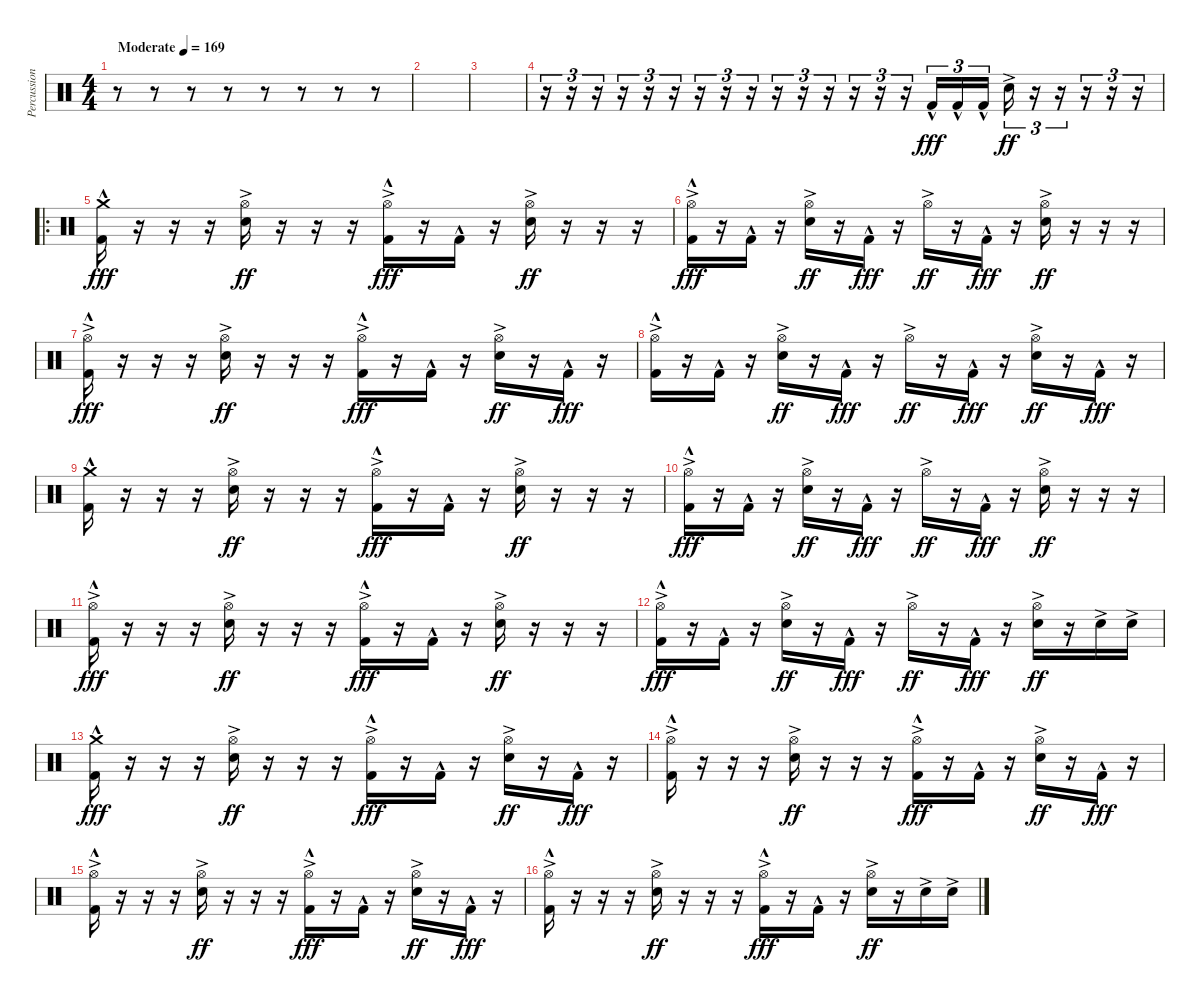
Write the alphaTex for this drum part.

\track ("Percussion" "Percussion") {instrument percussion}
\staff {score}
\articulation defaults
\ts (4 4)
\tempo (169 "Moderate")
\clef neutral
\ks c
r.8{dy fff} r.8 r.8 r.8 r.8 r.8 r.8 r.8 |
|
|
r.16{tu (3 2)} r.16{tu (3 2)} r.16{tu (3 2)} r.16{tu (3 2)} r.16{tu (3 2)} r.16{tu (3 2)} r.16{tu (3 2)} r.16{tu (3 2)} r.16{tu (3 2)} r.16{tu (3 2)} r.16{tu (3 2)} r.16{tu (3 2)} r.16{tu (3 2)} r.16{tu (3 2)} r.16{tu (3 2)} "Kick (hit) 2"{hac}.16{tu (3 2)} "Kick (hit) 2"{hac}.16{tu (3 2)} "Kick (hit) 2"{hac}.16{tu (3 2)} "Snare (hit) 2"{ac}.16{tu (3 2) dy ff} r.16{tu (3 2)} r.16{tu (3 2)} r.16{tu (3 2)} r.16{tu (3 2)} r.16{tu (3 2)} |
\ro
("Crash medium (hit)"{hac} "Kick (hit) 2"{hac}).16{dy fff} r.16 r.16 r.16 ("Hi-Hat (open)"{ac} "Snare (hit) 2"{ac}).16{dy ff} r.16 r.16 r.16 ("Hi-Hat (open)"{ac} "Kick (hit) 2"{hac}).16{dy fff} r.16 "Kick (hit) 2"{hac}.16 r.16 ("Hi-Hat (open)"{ac} "Snare (hit) 2"{ac}).16{dy ff} r.16 r.16 r.16 |
("Hi-Hat (open)"{ac} "Kick (hit) 2"{hac}).16{dy fff} r.16 "Kick (hit) 2"{hac}.16 r.16 ("Hi-Hat (open)"{ac} "Snare (hit) 2"{ac}).16{dy ff} r.16 "Kick (hit) 2"{hac}.16{dy fff} r.16 "Hi-Hat (open)"{ac}.16{dy ff} r.16 "Kick (hit) 2"{hac}.16{dy fff} r.16 ("Hi-Hat (open)"{ac} "Snare (hit) 2"{ac}).16{dy ff} r.16 r.16 r.16 |
("Hi-Hat (open)"{ac} "Kick (hit) 2"{hac}).16{dy fff} r.16 r.16 r.16 ("Hi-Hat (open)"{ac} "Snare (hit) 2"{ac}).16{dy ff} r.16 r.16 r.16 ("Hi-Hat (open)"{ac} "Kick (hit) 2"{hac}).16{dy fff} r.16 "Kick (hit) 2"{hac}.16 r.16 ("Hi-Hat (open)"{ac} "Snare (hit) 2"{ac}).16{dy ff} r.16 "Kick (hit) 2"{hac}.16{dy fff} r.16 |
("Hi-Hat (open)"{ac} "Kick (hit) 2"{hac}).16 r.16 "Kick (hit) 2"{hac}.16 r.16 ("Hi-Hat (open)"{ac} "Snare (hit) 2"{ac}).16{dy ff} r.16 "Kick (hit) 2"{hac}.16{dy fff} r.16 "Hi-Hat (open)"{ac}.16{dy ff} r.16 "Kick (hit) 2"{hac}.16{dy fff} r.16 ("Hi-Hat (open)"{ac} "Snare (hit) 2"{ac}).16{dy ff} r.16 "Kick (hit) 2"{hac}.16{dy fff} r.16 |
("Crash medium (hit)"{hac} "Kick (hit) 2"{hac}).16 r.16 r.16 r.16 ("Hi-Hat (open)"{ac} "Snare (hit) 2"{ac}).16{dy ff} r.16 r.16 r.16 ("Hi-Hat (open)"{ac} "Kick (hit) 2"{hac}).16{dy fff} r.16 "Kick (hit) 2"{hac}.16 r.16 ("Hi-Hat (open)"{ac} "Snare (hit) 2"{ac}).16{dy ff} r.16 r.16 r.16 |
("Hi-Hat (open)"{ac} "Kick (hit) 2"{hac}).16{dy fff} r.16 "Kick (hit) 2"{hac}.16 r.16 ("Hi-Hat (open)"{ac} "Snare (hit) 2"{ac}).16{dy ff} r.16 "Kick (hit) 2"{hac}.16{dy fff} r.16 "Hi-Hat (open)"{ac}.16{dy ff} r.16 "Kick (hit) 2"{hac}.16{dy fff} r.16 ("Hi-Hat (open)"{ac} "Snare (hit) 2"{ac}).16{dy ff} r.16 r.16 r.16 |
("Hi-Hat (open)"{ac} "Kick (hit) 2"{hac}).16{dy fff} r.16 r.16 r.16 ("Hi-Hat (open)"{ac} "Snare (hit) 2"{ac}).16{dy ff} r.16 r.16 r.16 ("Hi-Hat (open)"{ac} "Kick (hit) 2"{hac}).16{dy fff} r.16 "Kick (hit) 2"{hac}.16 r.16 ("Hi-Hat (open)"{ac} "Snare (hit) 2"{ac}).16{dy ff} r.16 r.16 r.16 |
("Hi-Hat (open)"{ac} "Kick (hit) 2"{hac}).16{dy fff} r.16 "Kick (hit) 2"{hac}.16 r.16 ("Hi-Hat (open)"{ac} "Snare (hit) 2"{ac}).16{dy ff} r.16 "Kick (hit) 2"{hac}.16{dy fff} r.16 "Hi-Hat (open)"{ac}.16{dy ff} r.16 "Kick (hit) 2"{hac}.16{dy fff} r.16 ("Hi-Hat (open)"{ac} "Snare (hit) 2"{ac}).16{dy ff} r.16 "Snare (hit) 2"{ac}.16 "Snare (hit) 2"{ac}.16 |
("Crash medium (hit)"{hac} "Kick (hit) 2"{hac}).16{dy fff} r.16 r.16 r.16 ("Hi-Hat (open)"{ac} "Snare (hit) 2"{ac}).16{dy ff} r.16 r.16 r.16 ("Hi-Hat (open)"{ac} "Kick (hit) 2"{hac}).16{dy fff} r.16 "Kick (hit) 2"{hac}.16 r.16 ("Hi-Hat (open)"{ac} "Snare (hit) 2"{ac}).16{dy ff} r.16 "Kick (hit) 2"{hac}.16{dy fff} r.16 |
("Hi-Hat (open)"{ac} "Kick (hit) 2"{hac}).16 r.16 r.16 r.16 ("Hi-Hat (open)"{ac} "Snare (hit) 2"{ac}).16{dy ff} r.16 r.16 r.16 ("Hi-Hat (open)"{ac} "Kick (hit) 2"{hac}).16{dy fff} r.16 "Kick (hit) 2"{hac}.16 r.16 ("Hi-Hat (open)"{ac} "Snare (hit) 2"{ac}).16{dy ff} r.16 "Kick (hit) 2"{hac}.16{dy fff} r.16 |
("Hi-Hat (open)"{ac} "Kick (hit) 2"{hac}).16 r.16 r.16 r.16 ("Hi-Hat (open)"{ac} "Snare (hit) 2"{ac}).16{dy ff} r.16 r.16 r.16 ("Hi-Hat (open)"{ac} "Kick (hit) 2"{hac}).16{dy fff} r.16 "Kick (hit) 2"{hac}.16 r.16 ("Hi-Hat (open)"{ac} "Snare (hit) 2"{ac}).16{dy ff} r.16 "Kick (hit) 2"{hac}.16{dy fff} r.16 |
("Hi-Hat (open)"{ac} "Kick (hit) 2"{hac}).16 r.16 r.16 r.16 ("Hi-Hat (open)"{ac} "Snare (hit) 2"{ac}).16{dy ff} r.16 r.16 r.16 ("Hi-Hat (open)"{ac} "Kick (hit) 2"{hac}).16{dy fff} r.16 "Kick (hit) 2"{hac}.16 r.16 ("Hi-Hat (open)"{ac} "Snare (hit) 2"{ac}).16{dy ff} r.16 "Snare (hit) 2"{ac}.16 "Snare (hit) 2"{ac}.16
